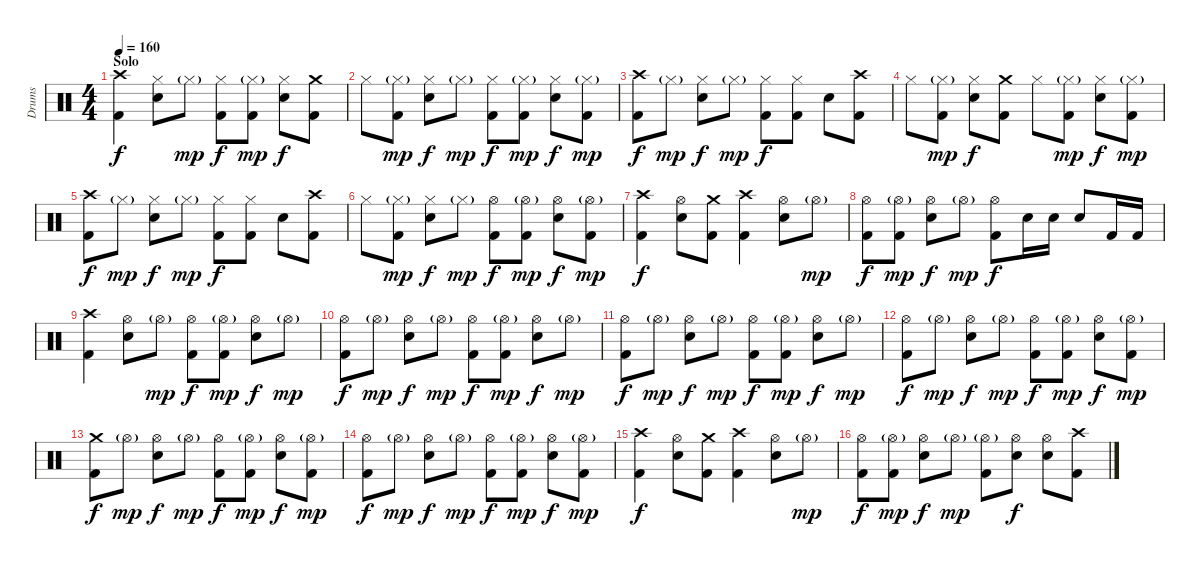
\track ("Drums" "Drums") {instrument percussion}
\staff {score}
\articulation defaults
\ts (4 4)
\section ("" "Solo")
\tempo 160
\clef neutral
\ks c
("Crash high (hit)" "Kick (hit) 2").4{dy f} ("Hi-Hat (closed)" "Snare (hit) 2").8 "Hi-Hat (closed)"{g}.8{dy mp} ("Hi-Hat (closed)" "Kick (hit) 2").8{dy f} ("Hi-Hat (closed)"{g} "Kick (hit) 2").8{dy mp} ("Hi-Hat (closed)" "Snare (hit) 2").8{dy f} ("Crash medium (hit)" "Kick (hit) 2").8 |
"Hi-Hat (closed)".8 ("Hi-Hat (closed)"{g} "Kick (hit) 2").8{dy mp} ("Hi-Hat (closed)" "Snare (hit) 2").8{dy f} "Hi-Hat (closed)"{g}.8{dy mp} ("Hi-Hat (closed)" "Kick (hit) 2").8{dy f} ("Hi-Hat (closed)"{g} "Kick (hit) 2").8{dy mp} ("Hi-Hat (closed)" "Snare (hit) 2").8{dy f} ("Hi-Hat (closed)"{g} "Kick (hit) 2").8{dy mp} |
("Crash high (hit)" "Kick (hit) 2").8{dy f} "Hi-Hat (closed)"{g}.8{dy mp} ("Hi-Hat (closed)" "Snare (hit) 2").8{dy f} "Hi-Hat (closed)"{g}.8{dy mp} ("Hi-Hat (closed)" "Kick (hit) 2").8{dy f} ("Hi-Hat (closed)" "Kick (hit) 2").8 "Snare (hit) 2".8 ("Crash high (hit)" "Kick (hit) 2").8 |
"Hi-Hat (closed)".8 ("Hi-Hat (closed)"{g} "Kick (hit) 2").8{dy mp} ("Hi-Hat (closed)" "Snare (hit) 2").8{dy f} ("Crash medium (hit)" "Kick (hit) 2").8 "Hi-Hat (closed)".8 ("Hi-Hat (closed)"{g} "Kick (hit) 2").8{dy mp} ("Hi-Hat (closed)" "Snare (hit) 2").8{dy f} ("Hi-Hat (closed)"{g} "Kick (hit) 2").8{dy mp} |
("Crash high (hit)" "Kick (hit) 2").8{dy f} "Hi-Hat (closed)"{g}.8{dy mp} ("Hi-Hat (closed)" "Snare (hit) 2").8{dy f} "Hi-Hat (closed)"{g}.8{dy mp} ("Hi-Hat (closed)" "Kick (hit) 2").8{dy f} ("Hi-Hat (closed)" "Kick (hit) 2").8 "Snare (hit) 2".8 ("Crash high (hit)" "Kick (hit) 2").8 |
"Hi-Hat (closed)".8 ("Hi-Hat (closed)"{g} "Kick (hit) 2").8{dy mp} ("Hi-Hat (closed)" "Snare (hit) 2").8{dy f} "Hi-Hat (closed)"{g}.8{dy mp} ("Hi-Hat (open)" "Kick (hit) 2").8{dy f} ("Hi-Hat (open)"{g} "Kick (hit) 2").8{dy mp} ("Hi-Hat (open)" "Snare (hit) 2").8{dy f} ("Hi-Hat (open)"{g} "Kick (hit) 2").8{dy mp} |
("Crash high (hit)" "Kick (hit) 2").4{dy f} ("Hi-Hat (open)" "Snare (hit) 2").8 ("Crash medium (hit)" "Kick (hit) 2").8 ("Crash high (hit)" "Kick (hit) 2").4 ("Hi-Hat (open)" "Snare (hit) 2").8 "Hi-Hat (open)"{g}.8{dy mp} |
("Hi-Hat (open)" "Kick (hit) 2").8{dy f} ("Hi-Hat (open)"{g} "Kick (hit) 2").8{dy mp} ("Hi-Hat (open)" "Snare (hit) 2").8{dy f} "Hi-Hat (open)"{g}.8{dy mp} ("Hi-Hat (open)" "Kick (hit) 2").8{dy f} "Snare (hit) 2".16 "Snare (hit) 2".16 "Snare (hit) 2".8 "Kick (hit) 2".16 "Kick (hit) 2".16 |
("Crash high (hit)" "Kick (hit) 2").4 ("Hi-Hat (open)" "Snare (hit) 2").8 "Hi-Hat (open)"{g}.8{dy mp} ("Hi-Hat (open)" "Kick (hit) 2").8{dy f} ("Hi-Hat (open)"{g} "Kick (hit) 2").8{dy mp} ("Hi-Hat (open)" "Snare (hit) 2").8{dy f} "Hi-Hat (open)"{g}.8{dy mp} |
("Hi-Hat (open)" "Kick (hit) 2").8{dy f} "Hi-Hat (open)"{g}.8{dy mp} ("Hi-Hat (open)" "Snare (hit) 2").8{dy f} "Hi-Hat (open)"{g}.8{dy mp} ("Hi-Hat (open)" "Kick (hit) 2").8{dy f} ("Hi-Hat (open)"{g} "Kick (hit) 2").8{dy mp} ("Hi-Hat (open)" "Snare (hit) 2").8{dy f} "Hi-Hat (open)"{g}.8{dy mp} |
("Hi-Hat (open)" "Kick (hit) 2").8{dy f} "Hi-Hat (open)"{g}.8{dy mp} ("Hi-Hat (open)" "Snare (hit) 2").8{dy f} "Hi-Hat (open)"{g}.8{dy mp} ("Hi-Hat (open)" "Kick (hit) 2").8{dy f} ("Hi-Hat (open)"{g} "Kick (hit) 2").8{dy mp} ("Hi-Hat (open)" "Snare (hit) 2").8{dy f} "Hi-Hat (open)"{g}.8{dy mp} |
("Hi-Hat (open)" "Kick (hit) 2").8{dy f} "Hi-Hat (open)"{g}.8{dy mp} ("Hi-Hat (open)" "Snare (hit) 2").8{dy f} "Hi-Hat (open)"{g}.8{dy mp} ("Hi-Hat (open)" "Kick (hit) 2").8{dy f} ("Hi-Hat (open)"{g} "Kick (hit) 2").8{dy mp} ("Hi-Hat (open)" "Snare (hit) 2").8{dy f} ("Hi-Hat (open)"{g} "Kick (hit) 2").8{dy mp} |
("Crash medium (hit)" "Kick (hit) 2").8{dy f} "Hi-Hat (open)"{g}.8{dy mp} ("Hi-Hat (open)" "Snare (hit) 2").8{dy f} "Hi-Hat (open)"{g}.8{dy mp} ("Hi-Hat (open)" "Kick (hit) 2").8{dy f} ("Hi-Hat (open)"{g} "Kick (hit) 2").8{dy mp} ("Hi-Hat (open)" "Snare (hit) 2").8{dy f} ("Hi-Hat (open)"{g} "Kick (hit) 2").8{dy mp} |
("Hi-Hat (open)" "Kick (hit) 2").8{dy f} "Hi-Hat (open)"{g}.8{dy mp} ("Hi-Hat (open)" "Snare (hit) 2").8{dy f} "Hi-Hat (open)"{g}.8{dy mp} ("Hi-Hat (open)" "Kick (hit) 2").8{dy f} ("Hi-Hat (open)"{g} "Kick (hit) 2").8{dy mp} ("Hi-Hat (open)" "Snare (hit) 2").8{dy f} ("Hi-Hat (open)"{g} "Kick (hit) 2").8{dy mp} |
("Crash high (hit)" "Kick (hit) 2").4{dy f} ("Hi-Hat (open)" "Snare (hit) 2").8 ("Crash medium (hit)" "Kick (hit) 2").8 ("Crash high (hit)" "Kick (hit) 2").4 ("Hi-Hat (open)" "Snare (hit) 2").8 "Hi-Hat (open)"{g}.8{dy mp} |
("Hi-Hat (open)" "Kick (hit) 2").8{dy f} ("Hi-Hat (open)"{g} "Kick (hit) 2").8{dy mp} ("Hi-Hat (open)" "Snare (hit) 2").8{dy f} "Hi-Hat (open)"{g}.8{dy mp} ("Hi-Hat (open)"{g} "Kick (hit) 2").8 ("Hi-Hat (open)" "Snare (hit) 2").8{dy f} ("Hi-Hat (open)" "Snare (hit) 2").8 ("Crash high (hit)" "Kick (hit) 2").8
